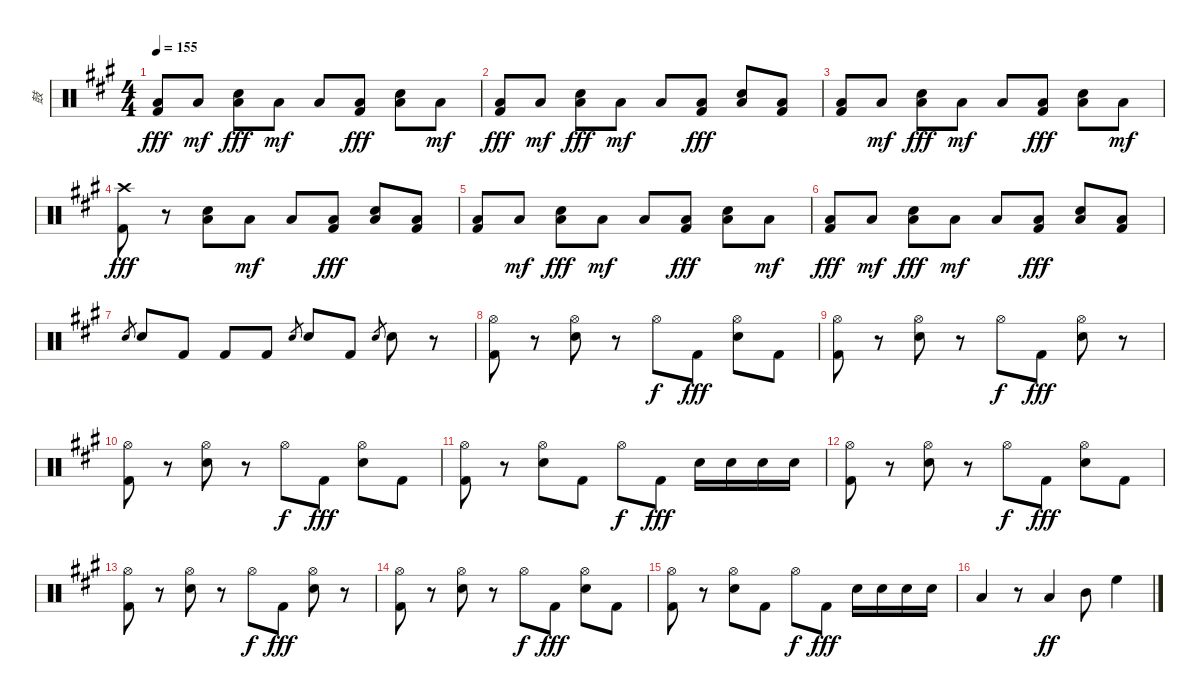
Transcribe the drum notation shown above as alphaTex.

\track ("鼓" "鼓") {instrument percussion}
\staff {score}
\articulation defaults
\ts (4 4)
\tempo 155
\clef neutral
\ks a
("Low Floor Tom (hit)" "Kick (hit) 2").8{dy fff} "Low Floor Tom (hit)".8{dy mf} ("Low Floor Tom (hit)" "Electric Snare (hit)").8{dy fff} "Low Floor Tom (hit)".8{dy mf} "Low Floor Tom (hit)".8 ("Low Floor Tom (hit)" "Kick (hit) 2").8{dy fff} ("Low Floor Tom (hit)" "Electric Snare (hit)").8 "Low Floor Tom (hit)".8{dy mf} |
("Low Floor Tom (hit)" "Kick (hit) 2").8{dy fff} "Low Floor Tom (hit)".8{dy mf} ("Low Floor Tom (hit)" "Electric Snare (hit)").8{dy fff} "Low Floor Tom (hit)".8{dy mf} "Low Floor Tom (hit)".8 ("Low Floor Tom (hit)" "Kick (hit) 2").8{dy fff} ("Low Floor Tom (hit)" "Electric Snare (hit)").8 ("Low Floor Tom (hit)" "Kick (hit) 2").8 |
("Low Floor Tom (hit)" "Kick (hit) 2").8 "Low Floor Tom (hit)".8{dy mf} ("Low Floor Tom (hit)" "Electric Snare (hit)").8{dy fff} "Low Floor Tom (hit)".8{dy mf} "Low Floor Tom (hit)".8 ("Low Floor Tom (hit)" "Kick (hit) 2").8{dy fff} ("Low Floor Tom (hit)" "Electric Snare (hit)").8 "Low Floor Tom (hit)".8{dy mf} |
("Kick (hit) 2" "Crash high (hit)").8{dy fff} r.8 ("Low Floor Tom (hit)" "Electric Snare (hit)").8 "Low Floor Tom (hit)".8{dy mf} "Low Floor Tom (hit)".8 ("Low Floor Tom (hit)" "Kick (hit) 2").8{dy fff} ("Low Floor Tom (hit)" "Electric Snare (hit)").8 ("Low Floor Tom (hit)" "Kick (hit) 2").8 |
("Low Floor Tom (hit)" "Kick (hit) 2").8 "Low Floor Tom (hit)".8{dy mf} ("Low Floor Tom (hit)" "Electric Snare (hit)").8{dy fff} "Low Floor Tom (hit)".8{dy mf} "Low Floor Tom (hit)".8 ("Low Floor Tom (hit)" "Kick (hit) 2").8{dy fff} ("Low Floor Tom (hit)" "Electric Snare (hit)").8 "Low Floor Tom (hit)".8{dy mf} |
("Low Floor Tom (hit)" "Kick (hit) 2").8{dy fff} "Low Floor Tom (hit)".8{dy mf} ("Low Floor Tom (hit)" "Electric Snare (hit)").8{dy fff} "Low Floor Tom (hit)".8{dy mf} "Low Floor Tom (hit)".8 ("Low Floor Tom (hit)" "Kick (hit) 2").8{dy fff} ("Low Floor Tom (hit)" "Electric Snare (hit)").8 ("Low Floor Tom (hit)" "Kick (hit) 2").8 |
"Electric Snare (hit)".8{gr} "Electric Snare (hit)".8 "Kick (hit) 2".8 "Kick (hit) 2".8 "Kick (hit) 2".8 "Electric Snare (hit)".8{gr} "Electric Snare (hit)".8 "Kick (hit) 2".8 "Electric Snare (hit)".8{gr} "Electric Snare (hit)".8 r.8 |
("Hi-Hat (open)" "Kick (hit) 2").8 r.8 ("Hi-Hat (open)" "Electric Snare (hit)").8 r.8 "Hi-Hat (open)".8{dy f} "Kick (hit) 2".8{dy fff} ("Hi-Hat (open)" "Electric Snare (hit)").8 "Kick (hit) 2".8 |
("Hi-Hat (open)" "Kick (hit) 2").8 r.8 ("Hi-Hat (open)" "Electric Snare (hit)").8 r.8 "Hi-Hat (open)".8{dy f} "Kick (hit) 2".8{dy fff} ("Hi-Hat (open)" "Electric Snare (hit)").8 r.8 |
("Hi-Hat (open)" "Kick (hit) 2").8 r.8 ("Hi-Hat (open)" "Electric Snare (hit)").8 r.8 "Hi-Hat (open)".8{dy f} "Kick (hit) 2".8{dy fff} ("Hi-Hat (open)" "Electric Snare (hit)").8 "Kick (hit) 2".8 |
("Hi-Hat (open)" "Kick (hit) 2").8 r.8 ("Hi-Hat (open)" "Electric Snare (hit)").8 "Kick (hit) 2".8 "Hi-Hat (open)".8{dy f} "Kick (hit) 2".8{dy fff} "Electric Snare (hit)".16 "Electric Snare (hit)".16 "Electric Snare (hit)".16 "Electric Snare (hit)".16 |
("Hi-Hat (open)" "Kick (hit) 2").8 r.8 ("Hi-Hat (open)" "Electric Snare (hit)").8 r.8 "Hi-Hat (open)".8{dy f} "Kick (hit) 2".8{dy fff} ("Hi-Hat (open)" "Electric Snare (hit)").8 "Kick (hit) 2".8 |
("Hi-Hat (open)" "Kick (hit) 2").8 r.8 ("Hi-Hat (open)" "Electric Snare (hit)").8 r.8 "Hi-Hat (open)".8{dy f} "Kick (hit) 2".8{dy fff} ("Hi-Hat (open)" "Electric Snare (hit)").8 r.8 |
("Hi-Hat (open)" "Kick (hit) 2").8 r.8 ("Hi-Hat (open)" "Electric Snare (hit)").8 r.8 "Hi-Hat (open)".8{dy f} "Kick (hit) 2".8{dy fff} ("Hi-Hat (open)" "Electric Snare (hit)").8 "Kick (hit) 2".8 |
("Hi-Hat (open)" "Kick (hit) 2").8 r.8 ("Hi-Hat (open)" "Electric Snare (hit)").8 "Kick (hit) 2".8 "Hi-Hat (open)".8{dy f} "Kick (hit) 2".8{dy fff} "Electric Snare (hit)".16 "Electric Snare (hit)".16 "Electric Snare (hit)".16 "Electric Snare (hit)".16 |
"Low Floor Tom (hit)".4 r.8 "Low Tom (hit)".4{dy ff} "Mid Tom (hit)".8 "High Floor Tom (hit)".4
